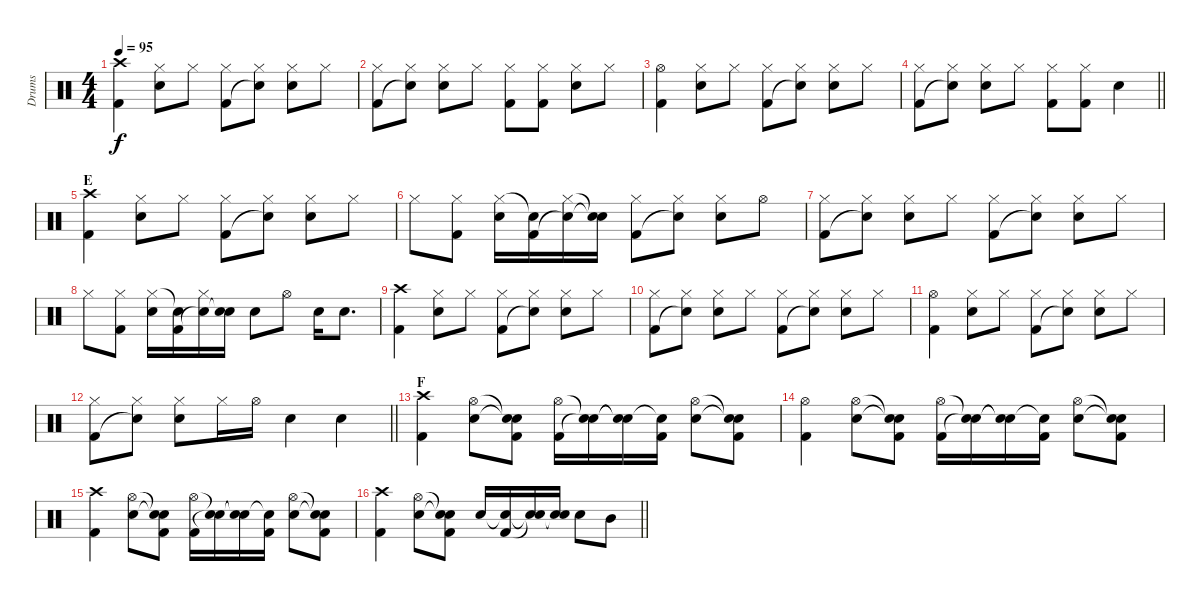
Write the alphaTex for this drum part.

\track ("Drums" "Drums") {instrument percussion}
\staff {score}
\articulation defaults
\ts (4 4)
\tempo 95
\clef neutral
\ks c
("Crash high (hit)" "Kick (hit) 2").4{dy f} ("Hi-Hat (closed)" "Snare (hit) 2").8 "Hi-Hat (closed)".8 ("Hi-Hat (closed)" "Kick (hit) 2").8 ("Hi-Hat (closed)" "Snare (hit)"{t}).8 ("Hi-Hat (closed)" "Snare (hit) 2").8 "Hi-Hat (closed)".8 |
("Hi-Hat (closed)" "Kick (hit) 2").8 ("Hi-Hat (closed)" "Snare (hit)"{t}).8 ("Hi-Hat (closed)" "Snare (hit) 2").8 "Hi-Hat (closed)".8 ("Hi-Hat (closed)" "Kick (hit) 2").8 ("Hi-Hat (closed)" "Kick (hit) 2").8 ("Hi-Hat (closed)" "Snare (hit) 2").8 "Hi-Hat (closed)".8 |
("Hi-Hat (open)" "Kick (hit) 2").4 ("Hi-Hat (closed)" "Snare (hit) 2").8 "Hi-Hat (closed)".8 ("Hi-Hat (closed)" "Kick (hit) 2").8 ("Hi-Hat (closed)" "Snare (hit)"{t}).8 ("Hi-Hat (closed)" "Snare (hit) 2").8 "Hi-Hat (closed)".8 |
\barLineRight lightlight
("Hi-Hat (closed)" "Kick (hit) 2").8 ("Hi-Hat (closed)" "Snare (hit)"{t}).8 ("Hi-Hat (closed)" "Snare (hit) 2").8 "Hi-Hat (closed)".8 ("Hi-Hat (closed)" "Kick (hit) 2").8 ("Hi-Hat (closed)" "Kick (hit) 2").8 "Snare (hit) 2".4 |
\section ("" "E")
("Crash high (hit)" "Kick (hit) 2").4 ("Hi-Hat (closed)" "Snare (hit) 2").8 "Hi-Hat (closed)".8 ("Hi-Hat (closed)" "Kick (hit) 2").8 ("Hi-Hat (closed)" "Snare (hit)"{t}).8 ("Hi-Hat (closed)" "Snare (hit) 2").8 "Hi-Hat (closed)".8 |
"Hi-Hat (closed)".8 ("Hi-Hat (closed)" "Kick (hit) 2").8 ("Hi-Hat (closed)" "Snare (hit) 2").16 ("Snare (hit)"{t} "Kick (hit) 2").16 ("Hi-Hat (closed)" "Snare (hit)"{t}).16 ("Snare (hit)"{t} "Snare (hit)"{t}).16 ("Hi-Hat (closed)" "Kick (hit) 2").8 ("Hi-Hat (closed)" "Snare (hit)"{t}).8 ("Hi-Hat (closed)" "Snare (hit) 2").8 "Hi-Hat (open)".8 |
("Hi-Hat (closed)" "Kick (hit) 2").8 ("Hi-Hat (closed)" "Snare (hit)"{t}).8 ("Hi-Hat (closed)" "Snare (hit) 2").8 "Hi-Hat (closed)".8 ("Hi-Hat (closed)" "Kick (hit) 2").8 ("Hi-Hat (closed)" "Snare (hit)"{t}).8 ("Hi-Hat (closed)" "Snare (hit) 2").8 "Hi-Hat (closed)".8 |
"Hi-Hat (closed)".8 ("Hi-Hat (closed)" "Kick (hit) 2").8 ("Hi-Hat (closed)" "Snare (hit) 2").16 ("Snare (hit)"{t} "Kick (hit) 2").16 ("Hi-Hat (closed)" "Snare (hit)"{t}).16 ("Snare (hit) 2" "Snare (hit)"{t}).16 "Snare (hit) 2".8 "Hi-Hat (open)".8 "Snare (hit) 2".16 "Snare (hit) 2".8{d} |
("Crash high (hit)" "Kick (hit) 2").4 ("Hi-Hat (closed)" "Snare (hit) 2").8 "Hi-Hat (closed)".8 ("Hi-Hat (closed)" "Kick (hit) 2").8 ("Hi-Hat (closed)" "Snare (hit)"{t}).8 ("Hi-Hat (closed)" "Snare (hit) 2").8 "Hi-Hat (closed)".8 |
("Hi-Hat (closed)" "Kick (hit) 2").8 ("Hi-Hat (closed)" "Snare (hit)"{t}).8 ("Hi-Hat (closed)" "Snare (hit) 2").8 "Hi-Hat (closed)".8 ("Hi-Hat (closed)" "Kick (hit) 2").8 ("Hi-Hat (closed)" "Snare (hit)"{t}).8 ("Hi-Hat (closed)" "Snare (hit) 2").8 "Hi-Hat (closed)".8 |
("Hi-Hat (open)" "Kick (hit) 2").4 ("Hi-Hat (closed)" "Snare (hit) 2").8 "Hi-Hat (closed)".8 ("Hi-Hat (closed)" "Kick (hit) 2").8 ("Hi-Hat (closed)" "Snare (hit)"{t}).8 ("Hi-Hat (closed)" "Snare (hit) 2").8 "Hi-Hat (closed)".8 |
\barLineRight lightlight
("Hi-Hat (closed)" "Kick (hit) 2").8 ("Hi-Hat (closed)" "Snare (hit)"{t}).8 ("Hi-Hat (closed)" "Snare (hit) 2").8 "Hi-Hat (closed)".16 "Hi-Hat (open)".16 "Snare (hit) 2".4 "Snare (hit) 2".4 |
\section ("" "F")
("Crash high (hit)" "Kick (hit) 2").4 ("Hi-Hat (open)" "Snare (hit) 2").8 ("Snare (hit)"{t} "Snare (hit)"{t} "Kick (hit) 2").8 ("Hi-Hat (open)" "Kick (hit) 2").16 ("Snare (hit)"{t} "Snare (hit)"{t}).16 ("Snare (hit)"{t} "Snare (hit)"{t}).16 ("Snare (hit)"{t} "Kick (hit) 2").16 ("Hi-Hat (open)" "Snare (hit) 2").8 ("Snare (hit)"{t} "Snare (hit)"{t} "Kick (hit) 2").8 |
("Hi-Hat (open)" "Kick (hit) 2").4 ("Hi-Hat (open)" "Snare (hit) 2").8 ("Snare (hit)"{t} "Snare (hit)"{t} "Kick (hit) 2").8 ("Hi-Hat (open)" "Kick (hit) 2").16 ("Snare (hit)"{t} "Snare (hit)"{t}).16 ("Snare (hit)"{t} "Snare (hit)"{t}).16 ("Snare (hit)"{t} "Kick (hit) 2").16 ("Hi-Hat (open)" "Snare (hit) 2").8 ("Snare (hit)"{t} "Snare (hit)"{t} "Kick (hit) 2").8 |
("Crash high (hit)" "Kick (hit) 2").4 ("Hi-Hat (open)" "Snare (hit) 2").8 ("Snare (hit)"{t} "Snare (hit)"{t} "Kick (hit) 2").8 ("Hi-Hat (open)" "Kick (hit) 2").16 ("Snare (hit)"{t} "Snare (hit)"{t}).16 ("Snare (hit)"{t} "Snare (hit)"{t}).16 ("Snare (hit)"{t} "Kick (hit) 2").16 ("Hi-Hat (open)" "Snare (hit) 2").8 ("Snare (hit)"{t} "Snare (hit)"{t} "Kick (hit) 2").8 |
\barLineRight lightlight
("Crash high (hit)" "Kick (hit) 2").4 ("Hi-Hat (open)" "Snare (hit) 2").8 ("Snare (hit)"{t} "Snare (hit)"{t} "Kick (hit) 2").8 "Snare (hit) 2".16 ("Snare (hit)"{t} "Kick (hit) 2").16 ("Snare (hit)"{t} "Snare (hit)"{t}).16 ("Snare (hit) 2" "Snare (hit)"{t}).16 "Snare (hit) 2".8 "Mid Tom (hit)".8
